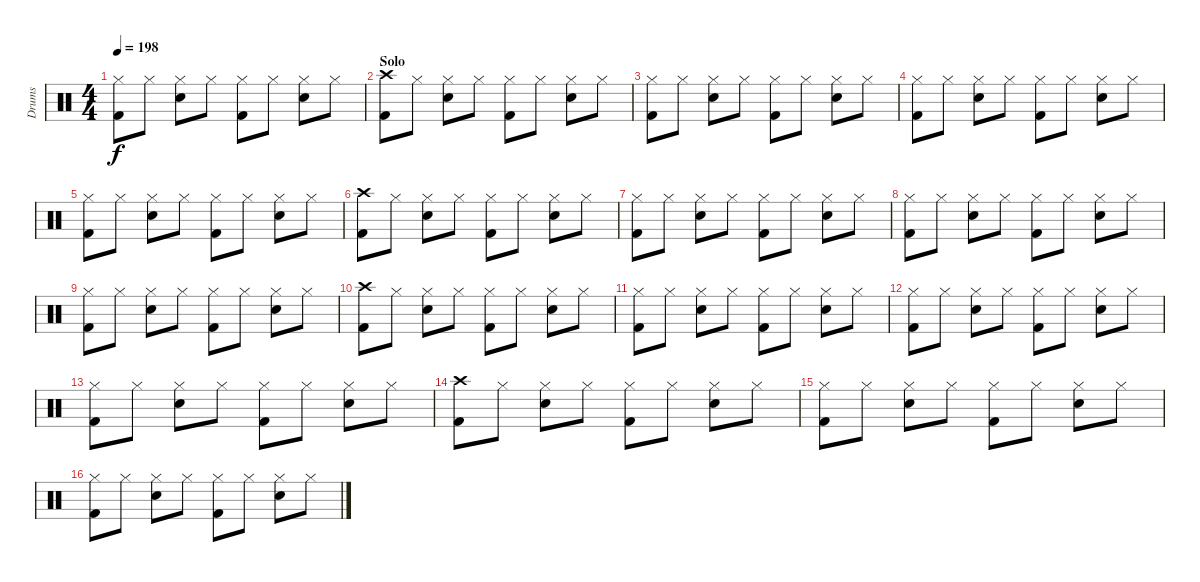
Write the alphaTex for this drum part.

\track ("Drums" "Drums") {instrument percussion}
\staff {score}
\articulation defaults
\ts (4 4)
\tempo 198
\clef neutral
\ks c
("Hi-Hat (closed)" "Kick (hit) 2").8{dy f} "Hi-Hat (closed)".8 ("Hi-Hat (closed)" "Snare (hit) 2").8 "Hi-Hat (closed)".8 ("Hi-Hat (closed)" "Kick (hit) 2").8 "Hi-Hat (closed)".8 ("Hi-Hat (closed)" "Snare (hit) 2").8 "Hi-Hat (closed)".8 |
\section ("" "Solo")
("Crash high (hit)" "Kick (hit) 2").8 "Hi-Hat (closed)".8 ("Hi-Hat (closed)" "Snare (hit) 2").8 "Hi-Hat (closed)".8 ("Hi-Hat (closed)" "Kick (hit) 2").8 "Hi-Hat (closed)".8 ("Hi-Hat (closed)" "Snare (hit) 2").8 "Hi-Hat (closed)".8 |
("Hi-Hat (closed)" "Kick (hit) 2").8 "Hi-Hat (closed)".8 ("Hi-Hat (closed)" "Snare (hit) 2").8 "Hi-Hat (closed)".8 ("Hi-Hat (closed)" "Kick (hit) 2").8 "Hi-Hat (closed)".8 ("Hi-Hat (closed)" "Snare (hit) 2").8 "Hi-Hat (closed)".8 |
("Hi-Hat (closed)" "Kick (hit) 2").8 "Hi-Hat (closed)".8 ("Hi-Hat (closed)" "Snare (hit) 2").8 "Hi-Hat (closed)".8 ("Hi-Hat (closed)" "Kick (hit) 2").8 "Hi-Hat (closed)".8 ("Hi-Hat (closed)" "Snare (hit) 2").8 "Hi-Hat (closed)".8 |
("Hi-Hat (closed)" "Kick (hit) 2").8 "Hi-Hat (closed)".8 ("Hi-Hat (closed)" "Snare (hit) 2").8 "Hi-Hat (closed)".8 ("Hi-Hat (closed)" "Kick (hit) 2").8 "Hi-Hat (closed)".8 ("Hi-Hat (closed)" "Snare (hit) 2").8 "Hi-Hat (closed)".8 |
("Crash high (hit)" "Kick (hit) 2").8 "Hi-Hat (closed)".8 ("Hi-Hat (closed)" "Snare (hit) 2").8 "Hi-Hat (closed)".8 ("Hi-Hat (closed)" "Kick (hit) 2").8 "Hi-Hat (closed)".8 ("Hi-Hat (closed)" "Snare (hit) 2").8 "Hi-Hat (closed)".8 |
("Hi-Hat (closed)" "Kick (hit) 2").8 "Hi-Hat (closed)".8 ("Hi-Hat (closed)" "Snare (hit) 2").8 "Hi-Hat (closed)".8 ("Hi-Hat (closed)" "Kick (hit) 2").8 "Hi-Hat (closed)".8 ("Hi-Hat (closed)" "Snare (hit) 2").8 "Hi-Hat (closed)".8 |
("Hi-Hat (closed)" "Kick (hit) 2").8 "Hi-Hat (closed)".8 ("Hi-Hat (closed)" "Snare (hit) 2").8 "Hi-Hat (closed)".8 ("Hi-Hat (closed)" "Kick (hit) 2").8 "Hi-Hat (closed)".8 ("Hi-Hat (closed)" "Snare (hit) 2").8 "Hi-Hat (closed)".8 |
("Hi-Hat (closed)" "Kick (hit) 2").8 "Hi-Hat (closed)".8 ("Hi-Hat (closed)" "Snare (hit) 2").8 "Hi-Hat (closed)".8 ("Hi-Hat (closed)" "Kick (hit) 2").8 "Hi-Hat (closed)".8 ("Hi-Hat (closed)" "Snare (hit) 2").8 "Hi-Hat (closed)".8 |
("Crash high (hit)" "Kick (hit) 2").8 "Hi-Hat (closed)".8 ("Hi-Hat (closed)" "Snare (hit) 2").8 "Hi-Hat (closed)".8 ("Hi-Hat (closed)" "Kick (hit) 2").8 "Hi-Hat (closed)".8 ("Hi-Hat (closed)" "Snare (hit) 2").8 "Hi-Hat (closed)".8 |
("Hi-Hat (closed)" "Kick (hit) 2").8 "Hi-Hat (closed)".8 ("Hi-Hat (closed)" "Snare (hit) 2").8 "Hi-Hat (closed)".8 ("Hi-Hat (closed)" "Kick (hit) 2").8 "Hi-Hat (closed)".8 ("Hi-Hat (closed)" "Snare (hit) 2").8 "Hi-Hat (closed)".8 |
("Hi-Hat (closed)" "Kick (hit) 2").8 "Hi-Hat (closed)".8 ("Hi-Hat (closed)" "Snare (hit) 2").8 "Hi-Hat (closed)".8 ("Hi-Hat (closed)" "Kick (hit) 2").8 "Hi-Hat (closed)".8 ("Hi-Hat (closed)" "Snare (hit) 2").8 "Hi-Hat (closed)".8 |
("Hi-Hat (closed)" "Kick (hit) 2").8 "Hi-Hat (closed)".8 ("Hi-Hat (closed)" "Snare (hit) 2").8 "Hi-Hat (closed)".8 ("Hi-Hat (closed)" "Kick (hit) 2").8 "Hi-Hat (closed)".8 ("Hi-Hat (closed)" "Snare (hit) 2").8 "Hi-Hat (closed)".8 |
("Crash high (hit)" "Kick (hit) 2").8 "Hi-Hat (closed)".8 ("Hi-Hat (closed)" "Snare (hit) 2").8 "Hi-Hat (closed)".8 ("Hi-Hat (closed)" "Kick (hit) 2").8 "Hi-Hat (closed)".8 ("Hi-Hat (closed)" "Snare (hit) 2").8 "Hi-Hat (closed)".8 |
("Hi-Hat (closed)" "Kick (hit) 2").8 "Hi-Hat (closed)".8 ("Hi-Hat (closed)" "Snare (hit) 2").8 "Hi-Hat (closed)".8 ("Hi-Hat (closed)" "Kick (hit) 2").8 "Hi-Hat (closed)".8 ("Hi-Hat (closed)" "Snare (hit) 2").8 "Hi-Hat (closed)".8 |
("Hi-Hat (closed)" "Kick (hit) 2").8 "Hi-Hat (closed)".8 ("Hi-Hat (closed)" "Snare (hit) 2").8 "Hi-Hat (closed)".8 ("Hi-Hat (closed)" "Kick (hit) 2").8 "Hi-Hat (closed)".8 ("Hi-Hat (closed)" "Snare (hit) 2").8 "Hi-Hat (closed)".8
